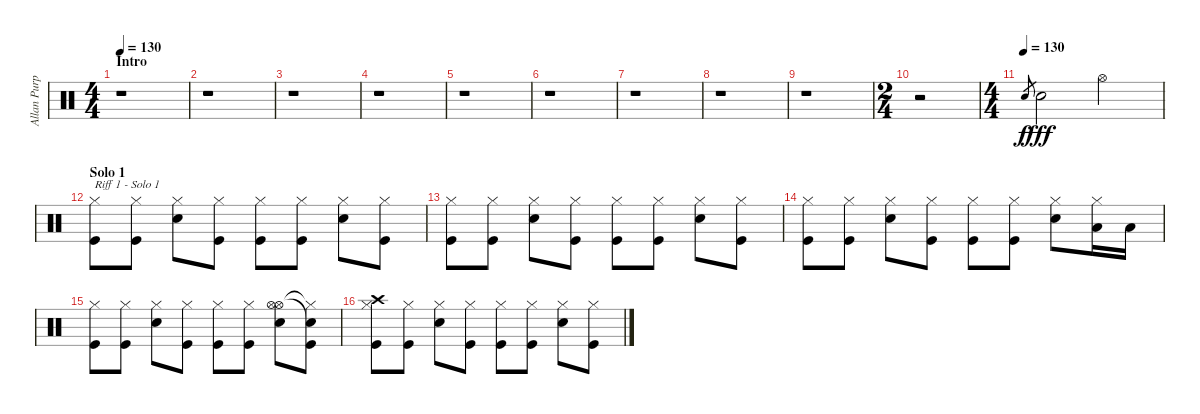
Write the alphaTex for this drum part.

\track ("Allan Purple" "Allan Purp") {instrument percussion}
\staff {score}
\articulation defaults
\ts (4 4)
\section ("" "Intro")
\tempo 130
\tempo 100
\tempo 130
\clef neutral
\ks c
r.1{dy f} |
r.1 |
r.1 |
r.1 |
r.1 |
r.1 |
r.1 |
r.1 |
r.1 |
\ts (2 4)
r.2 |
\ts (4 4)
\tempo (130)
"Electric Snare (hit)".8{gr} "Electric Snare (hit)".2{dy fff} "Hi-Hat (open)".2 |
\section ("" "Solo 1")
("Hi-Hat (closed)" "Kick (hit)").8{txt "Riff 1 - Solo 1"} ("Hi-Hat (closed)" "Kick (hit)").8 ("Hi-Hat (closed)" "Electric Snare (hit)").8 ("Hi-Hat (closed)" "Kick (hit)").8 ("Hi-Hat (closed)" "Kick (hit)").8 ("Hi-Hat (closed)" "Kick (hit)").8 ("Hi-Hat (closed)" "Electric Snare (hit)").8 ("Hi-Hat (closed)" "Kick (hit)").8 |
("Hi-Hat (closed)" "Kick (hit)").8 ("Hi-Hat (closed)" "Kick (hit)").8 ("Hi-Hat (closed)" "Electric Snare (hit)").8 ("Hi-Hat (closed)" "Kick (hit)").8 ("Hi-Hat (closed)" "Kick (hit)").8 ("Hi-Hat (closed)" "Kick (hit)").8 ("Hi-Hat (closed)" "Electric Snare (hit)").8 ("Hi-Hat (closed)" "Kick (hit)").8 |
("Hi-Hat (closed)" "Kick (hit)").8 ("Hi-Hat (closed)" "Kick (hit)").8 ("Hi-Hat (closed)" "Electric Snare (hit)").8 ("Hi-Hat (closed)" "Kick (hit)").8 ("Hi-Hat (closed)" "Kick (hit)").8 ("Hi-Hat (closed)" "Kick (hit)").8 ("Hi-Hat (closed)" "Electric Snare (hit)").8 ("Hi-Hat (closed)" "Low Tom (hit)").16 "Low Tom (hit)".16 |
("Hi-Hat (closed)" "Kick (hit)").8 ("Hi-Hat (closed)" "Kick (hit)").8 ("Hi-Hat (closed)" "Electric Snare (hit)").8 ("Hi-Hat (closed)" "Kick (hit)").8 ("Hi-Hat (closed)" "Kick (hit)").8 ("Hi-Hat (closed)" "Kick (hit)").8 ("Hi-Hat (open)" "Hi-Hat (open)" "Electric Snare (hit)").8 ("Snare (hit)"{t} "Hi-Hat (closed)"{t} "Kick (hit)").8 |
("Crash high (hit)" "Hi-Hat (closed)" "Kick (hit)").8 ("Hi-Hat (closed)" "Kick (hit)").8 ("Hi-Hat (closed)" "Electric Snare (hit)").8 ("Hi-Hat (closed)" "Kick (hit)").8 ("Hi-Hat (closed)" "Kick (hit)").8 ("Hi-Hat (closed)" "Kick (hit)").8 ("Hi-Hat (closed)" "Electric Snare (hit)").8 ("Hi-Hat (closed)" "Kick (hit)").8
